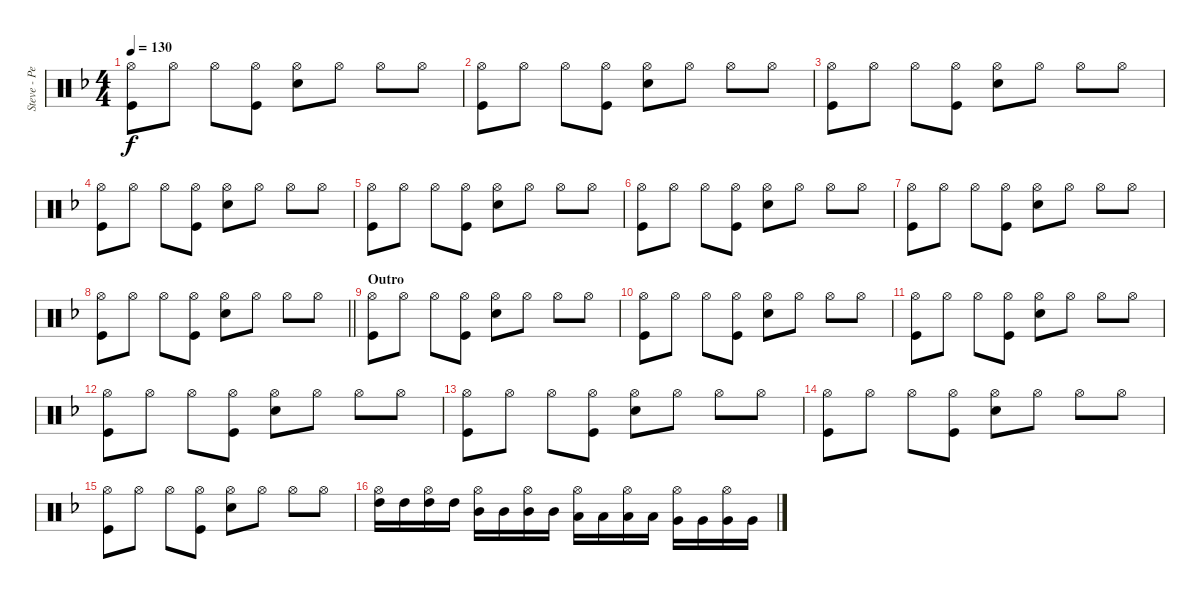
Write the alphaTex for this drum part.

\track ("Steve - Percussion" "Steve - Pe") {instrument percussion}
\staff {score}
\articulation defaults
\ts (4 4)
\tempo 130
\clef neutral
\ks f
("Kick (hit)" "Hi-Hat (open)").8{dy f} "Hi-Hat (open)".8 "Hi-Hat (open)".8 ("Kick (hit)" "Hi-Hat (open)").8 ("Snare (hit) 2" "Hi-Hat (open)").8 "Hi-Hat (open)".8 "Hi-Hat (open)".8 "Hi-Hat (open)".8 |
("Kick (hit)" "Hi-Hat (open)").8 "Hi-Hat (open)".8 "Hi-Hat (open)".8 ("Kick (hit)" "Hi-Hat (open)").8 ("Snare (hit) 2" "Hi-Hat (open)").8 "Hi-Hat (open)".8 "Hi-Hat (open)".8 "Hi-Hat (open)".8 |
("Kick (hit)" "Hi-Hat (open)").8 "Hi-Hat (open)".8 "Hi-Hat (open)".8 ("Kick (hit)" "Hi-Hat (open)").8 ("Snare (hit) 2" "Hi-Hat (open)").8 "Hi-Hat (open)".8 "Hi-Hat (open)".8 "Hi-Hat (open)".8 |
("Kick (hit)" "Hi-Hat (open)").8 "Hi-Hat (open)".8 "Hi-Hat (open)".8 ("Kick (hit)" "Hi-Hat (open)").8 ("Snare (hit) 2" "Hi-Hat (open)").8 "Hi-Hat (open)".8 "Hi-Hat (open)".8 "Hi-Hat (open)".8 |
("Kick (hit)" "Hi-Hat (open)").8 "Hi-Hat (open)".8 "Hi-Hat (open)".8 ("Kick (hit)" "Hi-Hat (open)").8 ("Snare (hit) 2" "Hi-Hat (open)").8 "Hi-Hat (open)".8 "Hi-Hat (open)".8 "Hi-Hat (open)".8 |
("Kick (hit)" "Hi-Hat (open)").8 "Hi-Hat (open)".8 "Hi-Hat (open)".8 ("Kick (hit)" "Hi-Hat (open)").8 ("Snare (hit) 2" "Hi-Hat (open)").8 "Hi-Hat (open)".8 "Hi-Hat (open)".8 "Hi-Hat (open)".8 |
("Kick (hit)" "Hi-Hat (open)").8 "Hi-Hat (open)".8 "Hi-Hat (open)".8 ("Kick (hit)" "Hi-Hat (open)").8 ("Snare (hit) 2" "Hi-Hat (open)").8 "Hi-Hat (open)".8 "Hi-Hat (open)".8 "Hi-Hat (open)".8 |
\barLineRight lightlight
("Kick (hit)" "Hi-Hat (open)").8 "Hi-Hat (open)".8 "Hi-Hat (open)".8 ("Kick (hit)" "Hi-Hat (open)").8 ("Snare (hit) 2" "Hi-Hat (open)").8 "Hi-Hat (open)".8 "Hi-Hat (open)".8 "Hi-Hat (open)".8 |
\section ("" "Outro")
("Kick (hit)" "Hi-Hat (open)").8 "Hi-Hat (open)".8 "Hi-Hat (open)".8 ("Kick (hit)" "Hi-Hat (open)").8 ("Snare (hit) 2" "Hi-Hat (open)").8 "Hi-Hat (open)".8 "Hi-Hat (open)".8 "Hi-Hat (open)".8 |
("Kick (hit)" "Hi-Hat (open)").8 "Hi-Hat (open)".8 "Hi-Hat (open)".8 ("Kick (hit)" "Hi-Hat (open)").8 ("Snare (hit) 2" "Hi-Hat (open)").8 "Hi-Hat (open)".8 "Hi-Hat (open)".8 "Hi-Hat (open)".8 |
("Kick (hit)" "Hi-Hat (open)").8 "Hi-Hat (open)".8 "Hi-Hat (open)".8 ("Kick (hit)" "Hi-Hat (open)").8 ("Snare (hit) 2" "Hi-Hat (open)").8 "Hi-Hat (open)".8 "Hi-Hat (open)".8 "Hi-Hat (open)".8 |
("Kick (hit)" "Hi-Hat (open)").8 "Hi-Hat (open)".8 "Hi-Hat (open)".8 ("Kick (hit)" "Hi-Hat (open)").8 ("Snare (hit) 2" "Hi-Hat (open)").8 "Hi-Hat (open)".8 "Hi-Hat (open)".8 "Hi-Hat (open)".8 |
("Kick (hit)" "Hi-Hat (open)").8 "Hi-Hat (open)".8 "Hi-Hat (open)".8 ("Kick (hit)" "Hi-Hat (open)").8 ("Snare (hit) 2" "Hi-Hat (open)").8 "Hi-Hat (open)".8 "Hi-Hat (open)".8 "Hi-Hat (open)".8 |
("Kick (hit)" "Hi-Hat (open)").8 "Hi-Hat (open)".8 "Hi-Hat (open)".8 ("Kick (hit)" "Hi-Hat (open)").8 ("Snare (hit) 2" "Hi-Hat (open)").8 "Hi-Hat (open)".8 "Hi-Hat (open)".8 "Hi-Hat (open)".8 |
("Kick (hit)" "Hi-Hat (open)").8 "Hi-Hat (open)".8 "Hi-Hat (open)".8 ("Kick (hit)" "Hi-Hat (open)").8 ("Snare (hit) 2" "Hi-Hat (open)").8 "Hi-Hat (open)".8 "Hi-Hat (open)".8 "Hi-Hat (open)".8 |
("High Tom (hit)" "Hi-Hat (open)").16 "High Tom (hit)".16 ("High Tom (hit)" "Hi-Hat (open)").16 "High Tom (hit)".16 ("Mid Tom (hit)" "Hi-Hat (open)").16 "Mid Tom (hit)".16 ("Mid Tom (hit)" "Hi-Hat (open)").16 "Mid Tom (hit)".16 ("Low Tom (hit)" "Hi-Hat (open)").16 "Low Tom (hit)".16 ("Low Tom (hit)" "Hi-Hat (open)").16 "Low Tom (hit)".16 ("Very Low Tom (hit)" "Hi-Hat (open)").16 "Very Low Tom (hit)".16 ("Very Low Tom (hit)" "Hi-Hat (open)").16 "Very Low Tom (hit)".16
